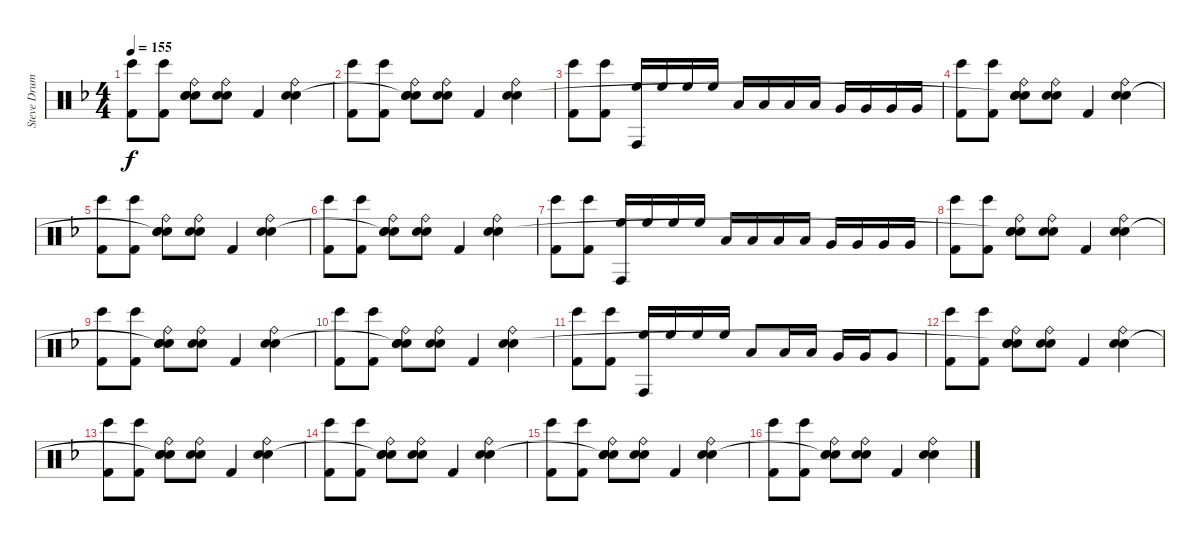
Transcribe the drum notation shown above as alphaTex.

\track ("Steve Drums" "Steve Drum") {instrument percussion}
\staff {score}
\articulation defaults
\ts (4 4)
\tempo 155
\clef neutral
\ks f
("Bongo High (hit)" "Kick (hit) 2").8{dy f} ("Bongo High (hit)" "Kick (hit) 2").8 ("Ride (bell)" "Snare (hit) 2" "Snare (hit)"{t} "Electric Snare (hit)").8 ("Ride (bell)" "Snare (hit) 2" "Electric Snare (hit)").8 "Kick (hit) 2".4 ("Ride (bell)" "Snare (hit) 2" "Electric Snare (hit)").4 |
("Bongo High (hit)" "Kick (hit) 2").8 ("Bongo High (hit)" "Kick (hit) 2").8 ("Ride (bell)" "Snare (hit) 2" "Snare (hit)"{t} "Electric Snare (hit)").8 ("Ride (bell)" "Snare (hit) 2" "Electric Snare (hit)").8 "Kick (hit) 2".4 ("Ride (bell)" "Snare (hit) 2" "Electric Snare (hit)").4 |
("Bongo High (hit)" "Kick (hit) 2").8 ("Bongo High (hit)" "Kick (hit) 2").8 ("Conga high (hit)" "High Floor Tom (hit)").16 "High Floor Tom (hit)".16 "High Floor Tom (hit)".16 "High Floor Tom (hit)".16 "Low Tom (hit)".16 "Low Tom (hit)".16 "Low Tom (hit)".16 "Low Tom (hit)".16 "Very Low Tom (hit)".16 "Very Low Tom (hit)".16 "Very Low Tom (hit)".16 "Very Low Tom (hit)".16 |
("Bongo High (hit)" "Kick (hit) 2").8 ("Bongo High (hit)" "Kick (hit) 2").8 ("Ride (bell)" "Snare (hit) 2" "Snare (hit)"{t} "Electric Snare (hit)").8 ("Ride (bell)" "Snare (hit) 2" "Electric Snare (hit)").8 "Kick (hit) 2".4 ("Ride (bell)" "Snare (hit) 2" "Electric Snare (hit)").4 |
("Bongo High (hit)" "Kick (hit) 2").8 ("Bongo High (hit)" "Kick (hit) 2").8 ("Ride (bell)" "Snare (hit) 2" "Snare (hit)"{t} "Electric Snare (hit)").8 ("Ride (bell)" "Snare (hit) 2" "Electric Snare (hit)").8 "Kick (hit) 2".4 ("Ride (bell)" "Snare (hit) 2" "Electric Snare (hit)").4 |
("Bongo High (hit)" "Kick (hit) 2").8 ("Bongo High (hit)" "Kick (hit) 2").8 ("Ride (bell)" "Snare (hit) 2" "Snare (hit)"{t} "Electric Snare (hit)").8 ("Ride (bell)" "Snare (hit) 2" "Electric Snare (hit)").8 "Kick (hit) 2".4 ("Ride (bell)" "Snare (hit) 2" "Electric Snare (hit)").4 |
("Bongo High (hit)" "Kick (hit) 2").8 ("Bongo High (hit)" "Kick (hit) 2").8 ("Conga high (hit)" "High Floor Tom (hit)").16 "High Floor Tom (hit)".16 "High Floor Tom (hit)".16 "High Floor Tom (hit)".16 "Low Tom (hit)".16 "Low Tom (hit)".16 "Low Tom (hit)".16 "Low Tom (hit)".16 "Very Low Tom (hit)".16 "Very Low Tom (hit)".16 "Very Low Tom (hit)".16 "Very Low Tom (hit)".16 |
("Bongo High (hit)" "Kick (hit) 2").8 ("Bongo High (hit)" "Kick (hit) 2").8 ("Ride (bell)" "Snare (hit) 2" "Snare (hit)"{t} "Electric Snare (hit)").8 ("Ride (bell)" "Snare (hit) 2" "Electric Snare (hit)").8 "Kick (hit) 2".4 ("Ride (bell)" "Snare (hit) 2" "Electric Snare (hit)").4 |
("Bongo High (hit)" "Kick (hit) 2").8 ("Bongo High (hit)" "Kick (hit) 2").8 ("Ride (bell)" "Snare (hit) 2" "Snare (hit)"{t} "Electric Snare (hit)").8 ("Ride (bell)" "Snare (hit) 2" "Electric Snare (hit)").8 "Kick (hit) 2".4 ("Ride (bell)" "Snare (hit) 2" "Electric Snare (hit)").4 |
("Bongo High (hit)" "Kick (hit) 2").8 ("Bongo High (hit)" "Kick (hit) 2").8 ("Ride (bell)" "Snare (hit) 2" "Snare (hit)"{t} "Electric Snare (hit)").8 ("Ride (bell)" "Snare (hit) 2" "Electric Snare (hit)").8 "Kick (hit) 2".4 ("Ride (bell)" "Snare (hit) 2" "Electric Snare (hit)").4 |
("Bongo High (hit)" "Kick (hit) 2").8 ("Bongo High (hit)" "Kick (hit) 2").8 ("Conga high (hit)" "High Floor Tom (hit)").16 "High Floor Tom (hit)".16 "High Floor Tom (hit)".16 "High Floor Tom (hit)".16 "Low Tom (hit)".8 "Low Tom (hit)".16 "Low Tom (hit)".16 "Very Low Tom (hit)".16 "Very Low Tom (hit)".16 "Very Low Tom (hit)".8 |
("Bongo High (hit)" "Kick (hit) 2").8 ("Bongo High (hit)" "Kick (hit) 2").8 ("Ride (bell)" "Snare (hit) 2" "Snare (hit)"{t} "Electric Snare (hit)").8 ("Ride (bell)" "Snare (hit) 2" "Electric Snare (hit)").8 "Kick (hit) 2".4 ("Ride (bell)" "Snare (hit) 2" "Electric Snare (hit)").4 |
("Bongo High (hit)" "Kick (hit) 2").8 ("Bongo High (hit)" "Kick (hit) 2").8 ("Ride (bell)" "Snare (hit) 2" "Snare (hit)"{t} "Electric Snare (hit)").8 ("Ride (bell)" "Snare (hit) 2" "Electric Snare (hit)").8 "Kick (hit) 2".4 ("Ride (bell)" "Snare (hit) 2" "Electric Snare (hit)").4 |
("Bongo High (hit)" "Kick (hit) 2").8 ("Bongo High (hit)" "Kick (hit) 2").8 ("Ride (bell)" "Snare (hit) 2" "Snare (hit)"{t} "Electric Snare (hit)").8 ("Ride (bell)" "Snare (hit) 2" "Electric Snare (hit)").8 "Kick (hit) 2".4 ("Ride (bell)" "Snare (hit) 2" "Electric Snare (hit)").4 |
("Bongo High (hit)" "Kick (hit) 2").8 ("Bongo High (hit)" "Kick (hit) 2").8 ("Ride (bell)" "Snare (hit) 2" "Snare (hit)"{t} "Electric Snare (hit)").8 ("Ride (bell)" "Snare (hit) 2" "Electric Snare (hit)").8 "Kick (hit) 2".4 ("Ride (bell)" "Snare (hit) 2" "Electric Snare (hit)").4 |
("Bongo High (hit)" "Kick (hit) 2").8 ("Bongo High (hit)" "Kick (hit) 2").8 ("Ride (bell)" "Snare (hit) 2" "Snare (hit)"{t} "Electric Snare (hit)").8 ("Ride (bell)" "Snare (hit) 2" "Electric Snare (hit)").8 "Kick (hit) 2".4 ("Ride (bell)" "Snare (hit) 2" "Electric Snare (hit)").4
